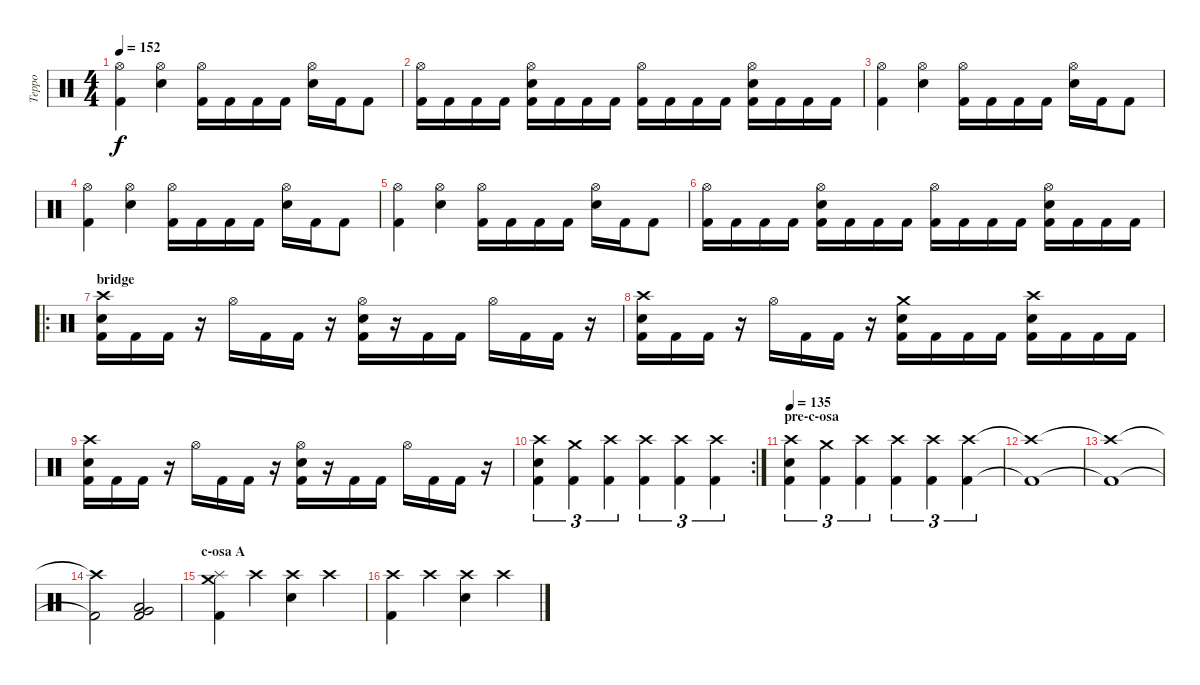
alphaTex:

\track ("Teppo" "Teppo") {instrument percussion}
\staff {score}
\articulation defaults
\ts (4 4)
\tempo 152
\clef neutral
\ks c
("Hi-Hat (open)" "Kick (hit) 2").4{dy f} ("Hi-Hat (open)" "Electric Snare (hit)").4 ("Hi-Hat (open)" "Kick (hit) 2").16 "Kick (hit) 2".16 "Kick (hit) 2".16 "Kick (hit) 2".16 ("Hi-Hat (open)" "Electric Snare (hit)").16 "Kick (hit) 2".16 "Kick (hit) 2".8 |
("Hi-Hat (open)" "Kick (hit) 2").16 "Kick (hit) 2".16 "Kick (hit) 2".16 "Kick (hit) 2".16 ("Hi-Hat (open)" "Electric Snare (hit)" "Kick (hit) 2").16 "Kick (hit) 2".16 "Kick (hit) 2".16 "Kick (hit) 2".16 ("Hi-Hat (open)" "Kick (hit) 2").16 "Kick (hit) 2".16 "Kick (hit) 2".16 "Kick (hit) 2".16 ("Hi-Hat (open)" "Electric Snare (hit)" "Kick (hit) 2").16 "Kick (hit) 2".16 "Kick (hit) 2".16 "Kick (hit) 2".16 |
("Hi-Hat (open)" "Kick (hit) 2").4 ("Hi-Hat (open)" "Electric Snare (hit)").4 ("Hi-Hat (open)" "Kick (hit) 2").16 "Kick (hit) 2".16 "Kick (hit) 2".16 "Kick (hit) 2".16 ("Hi-Hat (open)" "Electric Snare (hit)").16 "Kick (hit) 2".16 "Kick (hit) 2".8 |
("Hi-Hat (open)" "Kick (hit) 2").4 ("Hi-Hat (open)" "Electric Snare (hit)").4 ("Hi-Hat (open)" "Kick (hit) 2").16 "Kick (hit) 2".16 "Kick (hit) 2".16 "Kick (hit) 2".16 ("Hi-Hat (open)" "Electric Snare (hit)").16 "Kick (hit) 2".16 "Kick (hit) 2".8 |
("Hi-Hat (open)" "Kick (hit) 2").4 ("Hi-Hat (open)" "Electric Snare (hit)").4 ("Hi-Hat (open)" "Kick (hit) 2").16 "Kick (hit) 2".16 "Kick (hit) 2".16 "Kick (hit) 2".16 ("Hi-Hat (open)" "Electric Snare (hit)").16 "Kick (hit) 2".16 "Kick (hit) 2".8 |
("Hi-Hat (open)" "Kick (hit) 2").16 "Kick (hit) 2".16 "Kick (hit) 2".16 "Kick (hit) 2".16 ("Hi-Hat (open)" "Electric Snare (hit)" "Kick (hit) 2").16 "Kick (hit) 2".16 "Kick (hit) 2".16 "Kick (hit) 2".16 ("Hi-Hat (open)" "Kick (hit) 2").16 "Kick (hit) 2".16 "Kick (hit) 2".16 "Kick (hit) 2".16 ("Hi-Hat (open)" "Electric Snare (hit)" "Kick (hit) 2").16 "Kick (hit) 2".16 "Kick (hit) 2".16 "Kick (hit) 2".16 |
\ro
\section ("" "bridge")
("Crash high (hit)" "Electric Snare (hit)" "Kick (hit) 2").16 "Kick (hit) 2".16 "Kick (hit) 2".16 r.16 "Hi-Hat (open)".16 "Kick (hit) 2".16 "Kick (hit) 2".16 r.16 ("Hi-Hat (open)" "Electric Snare (hit)" "Kick (hit) 2").16 r.16 "Kick (hit) 2".16 "Kick (hit) 2".16 "Hi-Hat (open)".16 "Kick (hit) 2".16 "Kick (hit) 2".16 r.16 |
("Crash high (hit)" "Electric Snare (hit)" "Kick (hit) 2").16 "Kick (hit) 2".16 "Kick (hit) 2".16 r.16 "Hi-Hat (open)".16 "Kick (hit) 2".16 "Kick (hit) 2".16 r.16 ("Crash medium (hit)" "Electric Snare (hit)" "Kick (hit) 2").16 "Kick (hit) 2".16 "Kick (hit) 2".16 "Kick (hit) 2".16 ("Crash high (hit)" "Electric Snare (hit)" "Kick (hit) 2").16 "Kick (hit) 2".16 "Kick (hit) 2".16 "Kick (hit) 2".16 |
("Crash high (hit)" "Electric Snare (hit)" "Kick (hit) 2").16 "Kick (hit) 2".16 "Kick (hit) 2".16 r.16 "Hi-Hat (open)".16 "Kick (hit) 2".16 "Kick (hit) 2".16 r.16 ("Hi-Hat (open)" "Electric Snare (hit)" "Kick (hit) 2").16 r.16 "Kick (hit) 2".16 "Kick (hit) 2".16 "Hi-Hat (open)".16 "Kick (hit) 2".16 "Kick (hit) 2".16 r.16 |
\rc 2
("Crash high (hit)" "Electric Snare (hit)" "Kick (hit) 2").4{tu (3 2)} ("Crash medium (hit)" "Kick (hit) 2").4{tu (3 2)} ("Crash high (hit)" "Kick (hit) 2").4{tu (3 2)} ("Crash high (hit)" "Kick (hit) 2").4{tu (3 2)} ("Crash high (hit)" "Kick (hit) 2").4{tu (3 2)} ("Crash high (hit)" "Kick (hit) 2").4{tu (3 2)} |
\section ("" "pre-c-osa")
\tempo 135
("Crash high (hit)" "Electric Snare (hit)" "Kick (hit) 2").4{tu (3 2)} ("Crash medium (hit)" "Kick (hit) 2").4{tu (3 2)} ("Crash high (hit)" "Kick (hit) 2").4{tu (3 2)} ("Crash high (hit)" "Kick (hit) 2").4{tu (3 2)} ("Crash high (hit)" "Kick (hit) 2").4{tu (3 2)} ("Crash high (hit)" "Kick (hit) 2").4{tu (3 2)} |
("Crash high (hit)"{t} "Kick (hit) 2"{t}).1 |
("Crash high (hit)"{t} "Kick (hit) 2"{t}).1 |
("Crash high (hit)"{t} "Kick (hit) 2"{t}).2 ("Very Low Tom (hit)" "Low Floor Tom (hit)" "Kick (hit) 2").2 |
\section ("" "c-osa A")
("Crash medium (hit)" "Splash (hit)" "Kick (hit) 2").4 "Crash high (hit)".4 ("Crash high (hit)" "Electric Snare (hit)").4 "Crash high (hit)".4 |
("Crash high (hit)" "Kick (hit) 2").4 "Crash high (hit)".4 ("Crash high (hit)" "Electric Snare (hit)").4 "Crash high (hit)".4
